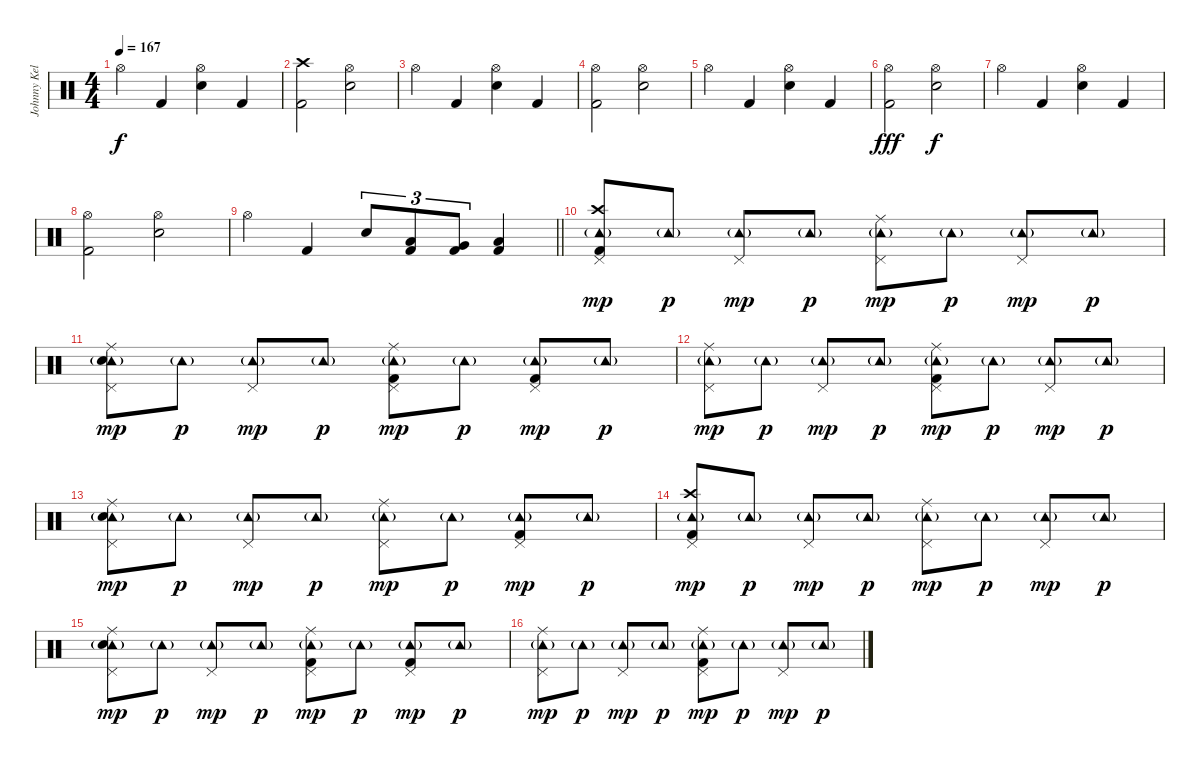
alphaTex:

\track ("Johnny Kelly" "Johnny Kel") {instrument percussion}
\staff {score}
\articulation defaults
\ts (4 4)
\tempo 167
\clef neutral
\ks c "Hi-Hat (open)".4{dy f} "Kick (hit) 2".4
("Hi-Hat (open)" "Electric Snare (hit)").4 "Kick (hit) 2".4 |
("Crash high (hit)" "Kick (hit) 2").2 ("Hi-Hat (open)" "Electric Snare (hit)").2 |
"Hi-Hat (open)".4 "Kick (hit) 2".4 ("Hi-Hat (open)" "Electric Snare (hit)").4 "Kick (hit) 2".4 |
("Hi-Hat (open)" "Kick (hit) 2").2 ("Hi-Hat (open)" "Electric Snare (hit)").2 |
"Hi-Hat (open)".4 "Kick (hit) 2".4 ("Hi-Hat (open)" "Electric Snare (hit)").4 "Kick (hit) 2".4 |
("Hi-Hat (open)" "Kick (hit) 2").2{dy fff} ("Hi-Hat (open)" "Electric Snare (hit)").2{dy f} |
"Hi-Hat (open)".4 "Kick (hit) 2".4 ("Hi-Hat (open)" "Electric Snare (hit)").4 "Kick (hit) 2".4 |
("Hi-Hat (open)" "Kick (hit) 2").2 ("Hi-Hat (open)" "Electric Snare (hit)").2 |
\barLineRight lightlight "Hi-Hat (open)".4 "Kick (hit) 2".4 "Electric Snare (hit)".8{tu (3 2)}
("Low Tom (hit)" "Kick (hit) 2").8{tu (3 2)} ("Very Low Tom (hit)" "Kick (hit) 2").8{tu (3 2)} ("Low Floor Tom (hit)" "Kick (hit) 2").4 |
\section ("" "")
("Tambourine (hit)"{g} "Pedal Hi-Hat (hit)" "Crash high (hit)" "Kick (hit) 2").8{dy mp} "Tambourine (hit)"{g}.8{dy p} ("Tambourine (hit)"{g} "Pedal Hi-Hat (hit)").8{dy mp} "Tambourine (hit)"{g}.8{dy p} ("Tambourine (hit)"{g} "Pedal Hi-Hat (hit)" "Ride (middle)").8{dy mp} "Tambourine (hit)"{g}.8{dy p} ("Tambourine (hit)"{g} "Pedal Hi-Hat (hit)").8{dy mp} "Tambourine (hit)"{g}.8{dy p} |
("Tambourine (hit)"{g} "Pedal Hi-Hat (hit)" "Ride (middle)" "Electric Snare (hit)").8{dy mp} "Tambourine (hit)"{g}.8{dy p} ("Tambourine (hit)"{g} "Pedal Hi-Hat (hit)").8{dy mp} "Tambourine (hit)"{g}.8{dy p} ("Tambourine (hit)"{g} "Pedal Hi-Hat (hit)" "Ride (middle)" "Kick (hit) 2").8{dy mp} "Tambourine (hit)"{g}.8{dy p} ("Tambourine (hit)"{g} "Pedal Hi-Hat (hit)" "Kick (hit) 2").8{dy mp} "Tambourine (hit)"{g}.8{dy p} |
("Tambourine (hit)"{g} "Pedal Hi-Hat (hit)" "Ride (middle)").8{dy mp} "Tambourine (hit)"{g}.8{dy p} ("Tambourine (hit)"{g} "Pedal Hi-Hat (hit)").8{dy mp} "Tambourine (hit)"{g}.8{dy p} ("Tambourine (hit)"{g} "Pedal Hi-Hat (hit)" "Ride (middle)" "Kick (hit) 2").8{dy mp} "Tambourine (hit)"{g}.8{dy p} ("Tambourine (hit)"{g} "Pedal Hi-Hat (hit)").8{dy mp} "Tambourine (hit)"{g}.8{dy p} |
("Tambourine (hit)"{g} "Pedal Hi-Hat (hit)" "Ride (middle)" "Electric Snare (hit)").8{dy mp} "Tambourine (hit)"{g}.8{dy p} ("Tambourine (hit)"{g} "Pedal Hi-Hat (hit)").8{dy mp} "Tambourine (hit)"{g}.8{dy p} ("Tambourine (hit)"{g} "Pedal Hi-Hat (hit)" "Ride (middle)").8{dy mp} "Tambourine (hit)"{g}.8{dy p} ("Tambourine (hit)"{g} "Pedal Hi-Hat (hit)" "Kick (hit) 2").8{dy mp} "Tambourine (hit)"{g}.8{dy p} |
("Tambourine (hit)"{g} "Pedal Hi-Hat (hit)" "Crash high (hit)" "Kick (hit) 2").8{dy mp} "Tambourine (hit)"{g}.8{dy p} ("Tambourine (hit)"{g} "Pedal Hi-Hat (hit)").8{dy mp} "Tambourine (hit)"{g}.8{dy p} ("Tambourine (hit)"{g} "Pedal Hi-Hat (hit)" "Ride (middle)").8{dy mp} "Tambourine (hit)"{g}.8{dy p} ("Tambourine (hit)"{g} "Pedal Hi-Hat (hit)").8{dy mp} "Tambourine (hit)"{g}.8{dy p} |
("Tambourine (hit)"{g} "Pedal Hi-Hat (hit)" "Ride (middle)" "Electric Snare (hit)").8{dy mp} "Tambourine (hit)"{g}.8{dy p} ("Tambourine (hit)"{g} "Pedal Hi-Hat (hit)").8{dy mp} "Tambourine (hit)"{g}.8{dy p} ("Tambourine (hit)"{g} "Pedal Hi-Hat (hit)" "Ride (middle)" "Kick (hit) 2").8{dy mp} "Tambourine (hit)"{g}.8{dy p} ("Tambourine (hit)"{g} "Pedal Hi-Hat (hit)" "Kick (hit) 2").8{dy mp} "Tambourine (hit)"{g}.8{dy p} |
("Tambourine (hit)"{g} "Pedal Hi-Hat (hit)" "Ride (middle)").8{dy mp} "Tambourine (hit)"{g}.8{dy p} ("Tambourine (hit)"{g} "Pedal Hi-Hat (hit)").8{dy mp} "Tambourine (hit)"{g}.8{dy p} ("Tambourine (hit)"{g} "Pedal Hi-Hat (hit)" "Ride (middle)" "Kick (hit) 2").8{dy mp} "Tambourine (hit)"{g}.8{dy p} ("Tambourine (hit)"{g} "Pedal Hi-Hat (hit)").8{dy mp} "Tambourine (hit)"{g}.8{dy p}
